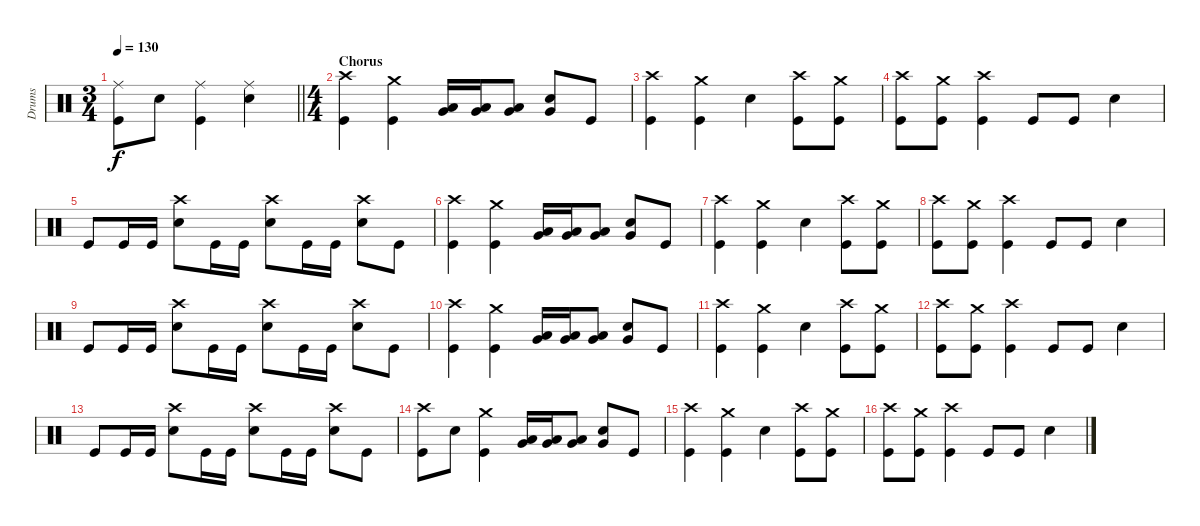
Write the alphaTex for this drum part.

\track ("Drums" "Drums") {instrument percussion}
\staff {score}
\articulation defaults
\ts (3 4)
\tempo 130
\clef neutral
\barLineRight lightlight
\ks c
("Ride (middle)" "Kick (hit)").8{dy f} "Snare (hit) 2".8 ("Ride (middle)" "Kick (hit)").4 ("Ride (middle)" "Snare (hit) 2").4 |
\ts (4 4)
\section ("" "Chorus")
("Crash high (hit)" "Kick (hit)").4 ("Crash medium (hit)" "Kick (hit)").4 ("Low Tom (hit)" "Very Low Tom (hit)").16 ("Low Tom (hit)" "Very Low Tom (hit)").16 ("Low Tom (hit)" "Very Low Tom (hit)").8 ("Snare (hit) 2" "Very Low Tom (hit)").8 "Kick (hit)".8 |
("Crash high (hit)" "Kick (hit)").4 ("Crash medium (hit)" "Kick (hit)").4 "Snare (hit) 2".4 ("Crash high (hit)" "Kick (hit)").8 ("Crash medium (hit)" "Kick (hit)").8 |
("Crash high (hit)" "Kick (hit)").8 ("Crash medium (hit)" "Kick (hit)").8 ("Crash high (hit)" "Kick (hit)").4 "Kick (hit)".8 "Kick (hit)".8 "Snare (hit) 2".4 |
"Kick (hit)".8 "Kick (hit)".16 "Kick (hit)".16 ("Crash high (hit)" "Snare (hit) 2").8 "Kick (hit)".16 "Kick (hit)".16 ("Crash high (hit)" "Snare (hit) 2").8 "Kick (hit)".16 "Kick (hit)".16 ("Crash high (hit)" "Snare (hit) 2").8 "Kick (hit)".8 |
("Crash high (hit)" "Kick (hit)").4 ("Crash medium (hit)" "Kick (hit)").4 ("Low Tom (hit)" "Very Low Tom (hit)").16 ("Low Tom (hit)" "Very Low Tom (hit)").16 ("Low Tom (hit)" "Very Low Tom (hit)").8 ("Snare (hit) 2" "Very Low Tom (hit)").8 "Kick (hit)".8 |
("Crash high (hit)" "Kick (hit)").4 ("Crash medium (hit)" "Kick (hit)").4 "Snare (hit) 2".4 ("Crash high (hit)" "Kick (hit)").8 ("Crash medium (hit)" "Kick (hit)").8 |
("Crash high (hit)" "Kick (hit)").8 ("Crash medium (hit)" "Kick (hit)").8 ("Crash high (hit)" "Kick (hit)").4 "Kick (hit)".8 "Kick (hit)".8 "Snare (hit) 2".4 |
"Kick (hit)".8 "Kick (hit)".16 "Kick (hit)".16 ("Crash high (hit)" "Snare (hit) 2").8 "Kick (hit)".16 "Kick (hit)".16 ("Crash high (hit)" "Snare (hit) 2").8 "Kick (hit)".16 "Kick (hit)".16 ("Crash high (hit)" "Snare (hit) 2").8 "Kick (hit)".8 |
("Crash high (hit)" "Kick (hit)").4 ("Crash medium (hit)" "Kick (hit)").4 ("Low Tom (hit)" "Very Low Tom (hit)").16 ("Low Tom (hit)" "Very Low Tom (hit)").16 ("Low Tom (hit)" "Very Low Tom (hit)").8 ("Snare (hit) 2" "Very Low Tom (hit)").8 "Kick (hit)".8 |
("Crash high (hit)" "Kick (hit)").4 ("Crash medium (hit)" "Kick (hit)").4 "Snare (hit) 2".4 ("Crash high (hit)" "Kick (hit)").8 ("Crash medium (hit)" "Kick (hit)").8 |
("Crash high (hit)" "Kick (hit)").8 ("Crash medium (hit)" "Kick (hit)").8 ("Crash high (hit)" "Kick (hit)").4 "Kick (hit)".8 "Kick (hit)".8 "Snare (hit) 2".4 |
"Kick (hit)".8 "Kick (hit)".16 "Kick (hit)".16 ("Crash high (hit)" "Snare (hit) 2").8 "Kick (hit)".16 "Kick (hit)".16 ("Crash high (hit)" "Snare (hit) 2").8 "Kick (hit)".16 "Kick (hit)".16 ("Crash high (hit)" "Snare (hit) 2").8 "Kick (hit)".8 |
("Crash high (hit)" "Kick (hit)").8 "Snare (hit) 2".8 ("Crash medium (hit)" "Kick (hit)").4 ("Low Tom (hit)" "Very Low Tom (hit)").16 ("Low Tom (hit)" "Very Low Tom (hit)").16 ("Low Tom (hit)" "Very Low Tom (hit)").8 ("Snare (hit) 2" "Very Low Tom (hit)").8 "Kick (hit)".8 |
("Crash high (hit)" "Kick (hit)").4 ("Crash medium (hit)" "Kick (hit)").4 "Snare (hit) 2".4 ("Crash high (hit)" "Kick (hit)").8 ("Crash medium (hit)" "Kick (hit)").8 |
("Crash high (hit)" "Kick (hit)").8 ("Crash medium (hit)" "Kick (hit)").8 ("Crash high (hit)" "Kick (hit)").4 "Kick (hit)".8 "Kick (hit)".8 "Snare (hit) 2".4
